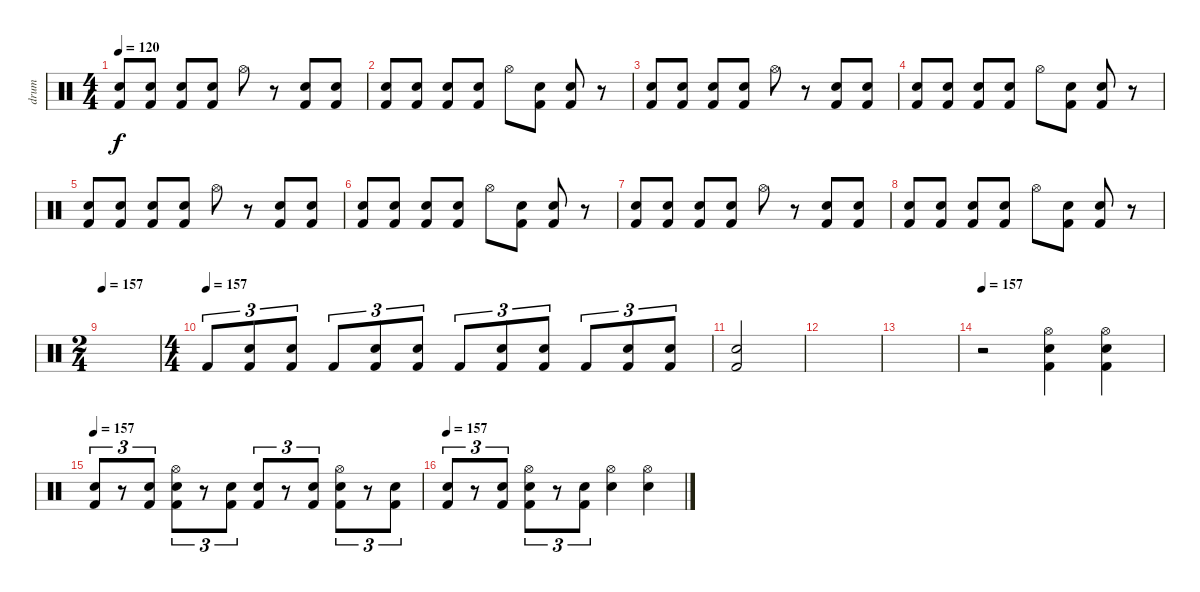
\track ("drum" "drum") {instrument percussion}
\staff {score}
\articulation defaults
\ts (4 4)
\tempo 120
\clef neutral
\ks c
("Kick (hit) 2" "Snare (hit) 2").8{dy f} ("Kick (hit) 2" "Snare (hit) 2").8 ("Kick (hit) 2" "Snare (hit) 2").8 ("Kick (hit) 2" "Snare (hit) 2").8 "Hi-Hat (open)".8 r.8 ("Kick (hit) 2" "Snare (hit) 2").8 ("Kick (hit) 2" "Snare (hit) 2").8 |
("Kick (hit) 2" "Snare (hit) 2").8 ("Kick (hit) 2" "Snare (hit) 2").8 ("Kick (hit) 2" "Snare (hit) 2").8 ("Kick (hit) 2" "Snare (hit) 2").8 "Hi-Hat (open)".8 ("Kick (hit) 2" "Snare (hit) 2").8 ("Kick (hit) 2" "Snare (hit) 2").8 r.8 |
("Kick (hit) 2" "Snare (hit) 2").8 ("Kick (hit) 2" "Snare (hit) 2").8 ("Kick (hit) 2" "Snare (hit) 2").8 ("Kick (hit) 2" "Snare (hit) 2").8 "Hi-Hat (open)".8 r.8 ("Kick (hit) 2" "Snare (hit) 2").8 ("Kick (hit) 2" "Snare (hit) 2").8 |
("Kick (hit) 2" "Snare (hit) 2").8 ("Kick (hit) 2" "Snare (hit) 2").8 ("Kick (hit) 2" "Snare (hit) 2").8 ("Kick (hit) 2" "Snare (hit) 2").8 "Hi-Hat (open)".8 ("Kick (hit) 2" "Snare (hit) 2").8 ("Kick (hit) 2" "Snare (hit) 2").8 r.8 |
("Kick (hit) 2" "Snare (hit) 2").8 ("Kick (hit) 2" "Snare (hit) 2").8 ("Kick (hit) 2" "Snare (hit) 2").8 ("Kick (hit) 2" "Snare (hit) 2").8 "Hi-Hat (open)".8 r.8 ("Kick (hit) 2" "Snare (hit) 2").8 ("Kick (hit) 2" "Snare (hit) 2").8 |
("Kick (hit) 2" "Snare (hit) 2").8 ("Kick (hit) 2" "Snare (hit) 2").8 ("Kick (hit) 2" "Snare (hit) 2").8 ("Kick (hit) 2" "Snare (hit) 2").8 "Hi-Hat (open)".8 ("Kick (hit) 2" "Snare (hit) 2").8 ("Kick (hit) 2" "Snare (hit) 2").8 r.8 |
("Kick (hit) 2" "Snare (hit) 2").8 ("Kick (hit) 2" "Snare (hit) 2").8 ("Kick (hit) 2" "Snare (hit) 2").8 ("Kick (hit) 2" "Snare (hit) 2").8 "Hi-Hat (open)".8 r.8 ("Kick (hit) 2" "Snare (hit) 2").8 ("Kick (hit) 2" "Snare (hit) 2").8 |
("Kick (hit) 2" "Snare (hit) 2").8 ("Kick (hit) 2" "Snare (hit) 2").8 ("Kick (hit) 2" "Snare (hit) 2").8 ("Kick (hit) 2" "Snare (hit) 2").8 "Hi-Hat (open)".8 ("Kick (hit) 2" "Snare (hit) 2").8 ("Kick (hit) 2" "Snare (hit) 2").8 r.8 |
\ts (2 4)
\section ("" "")
\tempo 157
|
\ts (4 4)
\tempo (157)
"Kick (hit) 2".8{tu (3 2)} ("Snare (hit) 2" "Kick (hit) 2").8{tu (3 2)} ("Snare (hit) 2" "Kick (hit) 2").8{tu (3 2)} "Kick (hit) 2".8{tu (3 2)} ("Snare (hit) 2" "Kick (hit) 2").8{tu (3 2)} ("Snare (hit) 2" "Kick (hit) 2").8{tu (3 2)} "Kick (hit) 2".8{tu (3 2)} ("Snare (hit) 2" "Kick (hit) 2").8{tu (3 2)} ("Snare (hit) 2" "Kick (hit) 2").8{tu (3 2)} "Kick (hit) 2".8{tu (3 2)} ("Snare (hit) 2" "Kick (hit) 2").8{tu (3 2)} ("Snare (hit) 2" "Kick (hit) 2").8{tu (3 2)} |
("Kick (hit) 2" "Snare (hit) 2").2 |
|
|
\tempo 157
r.2 ("Kick (hit) 2" "Snare (hit) 2" "Hi-Hat (open)").4 ("Kick (hit) 2" "Snare (hit) 2" "Hi-Hat (open)").4 |
\tempo 157
("Snare (hit) 2" "Kick (hit) 2").8{tu (3 2)} r.8{tu (3 2)} ("Snare (hit) 2" "Kick (hit) 2").8{tu (3 2)} ("Hi-Hat (open)" "Snare (hit) 2" "Kick (hit) 2").8{tu (3 2)} r.8{tu (3 2)} ("Snare (hit) 2" "Kick (hit) 2").8{tu (3 2)} ("Snare (hit) 2" "Kick (hit) 2").8{tu (3 2)} r.8{tu (3 2)} ("Snare (hit) 2" "Kick (hit) 2").8{tu (3 2)} ("Hi-Hat (open)" "Snare (hit) 2" "Kick (hit) 2").8{tu (3 2)} r.8{tu (3 2)} ("Snare (hit) 2" "Kick (hit) 2").8{tu (3 2)} |
\tempo 157
("Snare (hit) 2" "Kick (hit) 2").8{tu (3 2)} r.8{tu (3 2)} ("Snare (hit) 2" "Kick (hit) 2").8{tu (3 2)} ("Hi-Hat (open)" "Snare (hit) 2" "Kick (hit) 2").8{tu (3 2)} r.8{tu (3 2)} ("Snare (hit) 2" "Kick (hit) 2").8{tu (3 2)} ("Snare (hit) 2" "Hi-Hat (open)").4 ("Snare (hit) 2" "Hi-Hat (open)").4
